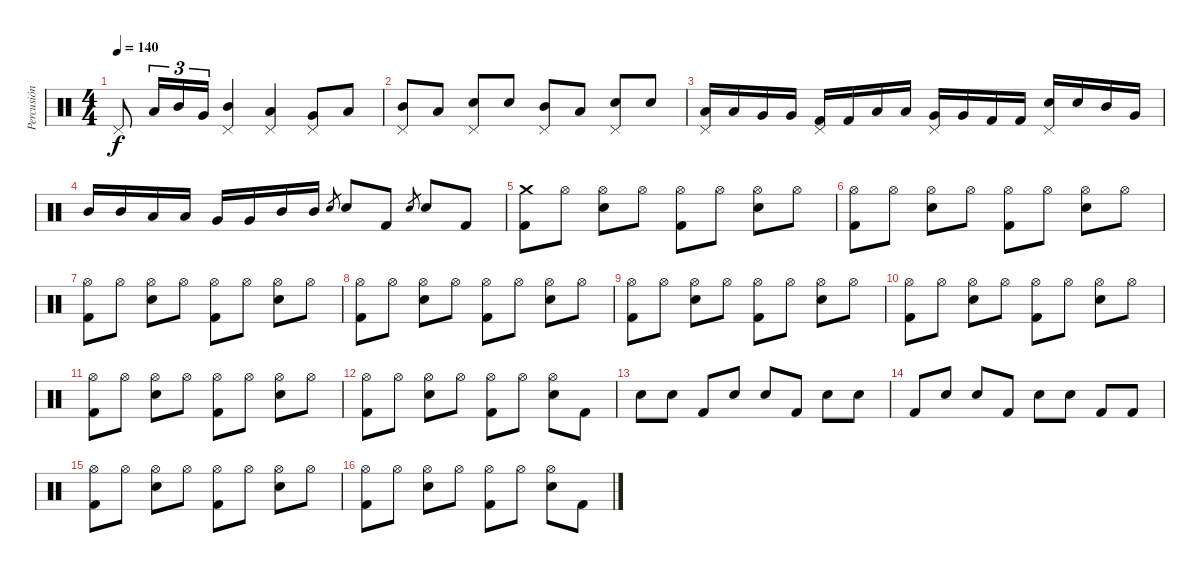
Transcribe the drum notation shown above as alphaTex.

\track ("Percusión" "Percusión") {instrument percussion}
\staff {score}
\articulation defaults
\ts (4 4)
\tempo 140
\clef neutral
\ks c "Pedal Hi-Hat (hit)".8{dy f} "Low Tom (hit)".16{tu (3 2)} "Mid Tom (hit)".16{tu (3 2)} "Very Low Tom (hit)".16{tu (3 2)}
("Pedal Hi-Hat (hit)" "Mid Tom (hit)").4 ("Pedal Hi-Hat (hit)" "Low Tom (hit)").4 ("Pedal Hi-Hat (hit)" "Very Low Tom (hit)").8 "Low Floor Tom (hit)".8 |
("Pedal Hi-Hat (hit)" "Mid Tom (hit)").8 "Low Tom (hit)".8 ("Pedal Hi-Hat (hit)" "Electric Snare (hit)").8 "Electric Snare (hit)".8 ("Pedal Hi-Hat (hit)" "Mid Tom (hit)").8 "Low Tom (hit)".8 ("Pedal Hi-Hat (hit)" "Electric Snare (hit)").8 "Electric Snare (hit)".8 |
("Pedal Hi-Hat (hit)" "Low Tom (hit)").16 "Low Tom (hit)".16 "Very Low Tom (hit)".16 "Very Low Tom (hit)".16 ("Pedal Hi-Hat (hit)" "Kick (hit) 2").16 "Kick (hit) 2".16 "Low Tom (hit)".16 "Low Tom (hit)".16 ("Pedal Hi-Hat (hit)" "Very Low Tom (hit)").16 "Very Low Tom (hit)".16 "Kick (hit) 2".16 "Kick (hit) 2".16 ("Pedal Hi-Hat (hit)" "Electric Snare (hit)").16 "Electric Snare (hit)".16 "Mid Tom (hit)".16 "Very Low Tom (hit)".16 |
"Mid Tom (hit)".16 "Mid Tom (hit)".16 "Low Tom (hit)".16 "Low Tom (hit)".16 "Very Low Tom (hit)".16 "Very Low Tom (hit)".16 "Mid Tom (hit)".16 "Mid Tom (hit)".16 "Electric Snare (hit)".8{gr} "Electric Snare (hit)".8 "Kick (hit) 2".8 "Electric Snare (hit)".8{gr} "Electric Snare (hit)".8 "Kick (hit) 2".8 |
("Crash medium (hit)" "Kick (hit) 2").8 "Hi-Hat (open)".8 ("Hi-Hat (open)" "Electric Snare (hit)").8 "Hi-Hat (open)".8 ("Hi-Hat (open)" "Kick (hit) 2").8 "Hi-Hat (open)".8 ("Hi-Hat (open)" "Electric Snare (hit)").8 "Hi-Hat (open)".8 |
("Hi-Hat (open)" "Kick (hit) 2").8 "Hi-Hat (open)".8 ("Hi-Hat (open)" "Electric Snare (hit)").8 "Hi-Hat (open)".8 ("Hi-Hat (open)" "Kick (hit) 2").8 "Hi-Hat (open)".8 ("Hi-Hat (open)" "Electric Snare (hit)").8 "Hi-Hat (open)".8 |
("Hi-Hat (open)" "Kick (hit) 2").8 "Hi-Hat (open)".8 ("Hi-Hat (open)" "Electric Snare (hit)").8 "Hi-Hat (open)".8 ("Hi-Hat (open)" "Kick (hit) 2").8 "Hi-Hat (open)".8 ("Hi-Hat (open)" "Electric Snare (hit)").8 "Hi-Hat (open)".8 |
("Hi-Hat (open)" "Kick (hit) 2").8 "Hi-Hat (open)".8 ("Hi-Hat (open)" "Electric Snare (hit)").8 "Hi-Hat (open)".8 ("Hi-Hat (open)" "Kick (hit) 2").8 "Hi-Hat (open)".8 ("Hi-Hat (open)" "Electric Snare (hit)").8 "Hi-Hat (open)".8 |
("Hi-Hat (open)" "Kick (hit) 2").8 "Hi-Hat (open)".8 ("Hi-Hat (open)" "Electric Snare (hit)").8 "Hi-Hat (open)".8 ("Hi-Hat (open)" "Kick (hit) 2").8 "Hi-Hat (open)".8 ("Hi-Hat (open)" "Electric Snare (hit)").8 "Hi-Hat (open)".8 |
("Hi-Hat (open)" "Kick (hit) 2").8 "Hi-Hat (open)".8 ("Hi-Hat (open)" "Electric Snare (hit)").8 "Hi-Hat (open)".8 ("Hi-Hat (open)" "Kick (hit) 2").8 "Hi-Hat (open)".8 ("Hi-Hat (open)" "Electric Snare (hit)").8 "Hi-Hat (open)".8 |
("Hi-Hat (open)" "Kick (hit) 2").8 "Hi-Hat (open)".8 ("Hi-Hat (open)" "Electric Snare (hit)").8 "Hi-Hat (open)".8 ("Hi-Hat (open)" "Kick (hit) 2").8 "Hi-Hat (open)".8 ("Hi-Hat (open)" "Electric Snare (hit)").8 "Hi-Hat (open)".8 |
("Hi-Hat (open)" "Kick (hit) 2").8 "Hi-Hat (open)".8 ("Hi-Hat (open)" "Electric Snare (hit)").8 "Hi-Hat (open)".8 ("Hi-Hat (open)" "Kick (hit) 2").8 "Hi-Hat (open)".8 ("Hi-Hat (open)" "Electric Snare (hit)").8 "Kick (hit) 2".8 |
"Electric Snare (hit)".8 "Electric Snare (hit)".8 "Kick (hit) 2".8 "Electric Snare (hit)".8 "Electric Snare (hit)".8 "Kick (hit) 2".8 "Electric Snare (hit)".8 "Electric Snare (hit)".8 |
"Kick (hit) 2".8 "Electric Snare (hit)".8 "Electric Snare (hit)".8 "Kick (hit) 2".8 "Electric Snare (hit)".8 "Electric Snare (hit)".8 "Kick (hit) 2".8 "Kick (hit) 2".8 |
("Hi-Hat (open)" "Kick (hit) 2").8 "Hi-Hat (open)".8 ("Hi-Hat (open)" "Electric Snare (hit)").8 "Hi-Hat (open)".8 ("Hi-Hat (open)" "Kick (hit) 2").8 "Hi-Hat (open)".8 ("Hi-Hat (open)" "Electric Snare (hit)").8 "Hi-Hat (open)".8 |
("Hi-Hat (open)" "Kick (hit) 2").8 "Hi-Hat (open)".8 ("Hi-Hat (open)" "Electric Snare (hit)").8 "Hi-Hat (open)".8 ("Hi-Hat (open)" "Kick (hit) 2").8 "Hi-Hat (open)".8 ("Hi-Hat (open)" "Electric Snare (hit)").8 "Kick (hit) 2".8
